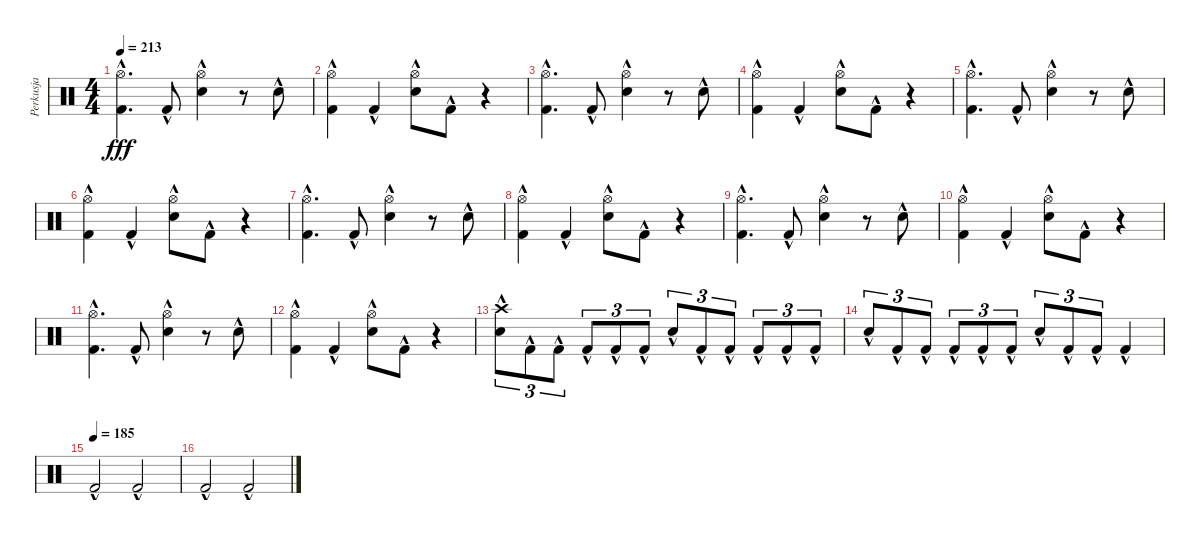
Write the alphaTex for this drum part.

\track ("Perkusja" "Perkusja") {instrument percussion}
\staff {score}
\articulation defaults
\ts (4 4)
\tempo 213
\clef neutral
\ks c
("Hi-Hat (open)" "Kick (hit) 2"{hac}).4{d dy fff} "Kick (hit) 2"{hac}.8 ("Hi-Hat (open)" "Electric Snare (hit)"{hac}).4 r.8 "Electric Snare (hit)"{hac}.8 |
("Hi-Hat (open)" "Kick (hit) 2"{hac}).4 "Kick (hit) 2"{hac}.4 ("Hi-Hat (open)" "Electric Snare (hit)"{hac}).8 "Kick (hit) 2"{hac}.8 r.4 |
("Hi-Hat (open)" "Kick (hit) 2"{hac}).4{d} "Kick (hit) 2"{hac}.8 ("Hi-Hat (open)" "Electric Snare (hit)"{hac}).4 r.8 "Electric Snare (hit)"{hac}.8 |
("Hi-Hat (open)" "Kick (hit) 2"{hac}).4 "Kick (hit) 2"{hac}.4 ("Hi-Hat (open)" "Electric Snare (hit)"{hac}).8 "Kick (hit) 2"{hac}.8 r.4 |
("Hi-Hat (open)" "Kick (hit) 2"{hac}).4{d} "Kick (hit) 2"{hac}.8 ("Hi-Hat (open)" "Electric Snare (hit)"{hac}).4 r.8 "Electric Snare (hit)"{hac}.8 |
("Hi-Hat (open)" "Kick (hit) 2"{hac}).4 "Kick (hit) 2"{hac}.4 ("Hi-Hat (open)" "Electric Snare (hit)"{hac}).8 "Kick (hit) 2"{hac}.8 r.4 |
("Hi-Hat (open)" "Kick (hit) 2"{hac}).4{d} "Kick (hit) 2"{hac}.8 ("Hi-Hat (open)" "Electric Snare (hit)"{hac}).4 r.8 "Electric Snare (hit)"{hac}.8 |
("Hi-Hat (open)" "Kick (hit) 2"{hac}).4 "Kick (hit) 2"{hac}.4 ("Hi-Hat (open)" "Electric Snare (hit)"{hac}).8 "Kick (hit) 2"{hac}.8 r.4 |
("Hi-Hat (open)" "Kick (hit) 2"{hac}).4{d} "Kick (hit) 2"{hac}.8 ("Hi-Hat (open)" "Electric Snare (hit)"{hac}).4 r.8 "Electric Snare (hit)"{hac}.8 |
("Hi-Hat (open)" "Kick (hit) 2"{hac}).4 "Kick (hit) 2"{hac}.4 ("Hi-Hat (open)" "Electric Snare (hit)"{hac}).8 "Kick (hit) 2"{hac}.8 r.4 |
("Hi-Hat (open)" "Kick (hit) 2"{hac}).4{d} "Kick (hit) 2"{hac}.8 ("Hi-Hat (open)" "Electric Snare (hit)"{hac}).4 r.8 "Electric Snare (hit)"{hac}.8 |
("Hi-Hat (open)" "Kick (hit) 2"{hac}).4 "Kick (hit) 2"{hac}.4 ("Hi-Hat (open)" "Electric Snare (hit)"{hac}).8 "Kick (hit) 2"{hac}.8 r.4 |
("Crash high (hit)" "Electric Snare (hit)"{hac}).8{tu (3 2)} "Kick (hit) 2"{hac}.8{tu (3 2)} "Kick (hit) 2"{hac}.8{tu (3 2)} "Kick (hit) 2"{hac}.8{tu (3 2)} "Kick (hit) 2"{hac}.8{tu (3 2)} "Kick (hit) 2"{hac}.8{tu (3 2)} "Electric Snare (hit)"{hac}.8{tu (3 2)} "Kick (hit) 2"{hac}.8{tu (3 2)} "Kick (hit) 2"{hac}.8{tu (3 2)} "Kick (hit) 2"{hac}.8{tu (3 2)} "Kick (hit) 2"{hac}.8{tu (3 2)} "Kick (hit) 2"{hac}.8{tu (3 2)} |
"Electric Snare (hit)"{hac}.8{tu (3 2)} "Kick (hit) 2"{hac}.8{tu (3 2)} "Kick (hit) 2"{hac}.8{tu (3 2)} "Kick (hit) 2"{hac}.8{tu (3 2)} "Kick (hit) 2"{hac}.8{tu (3 2)} "Kick (hit) 2"{hac}.8{tu (3 2)} "Electric Snare (hit)"{hac}.8{tu (3 2)} "Kick (hit) 2"{hac}.8{tu (3 2)} "Kick (hit) 2"{hac}.8{tu (3 2)} "Kick (hit) 2"{hac}.4 |
\tempo (185)
"Kick (hit) 2"{hac}.2 "Kick (hit) 2"{hac}.2 |
"Kick (hit) 2"{hac}.2 "Kick (hit) 2"{hac}.2
